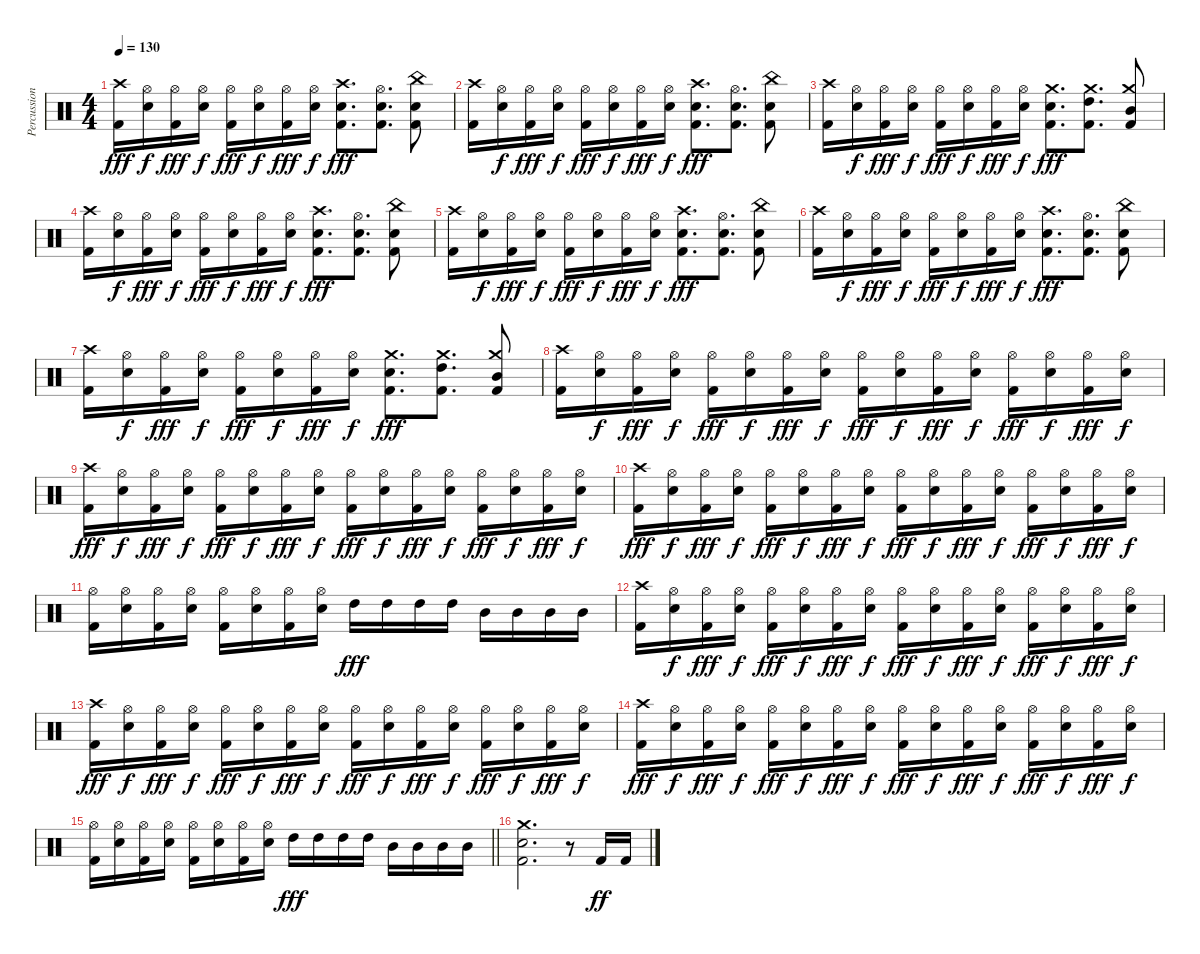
\track ("Percussion" "Percussion") {instrument percussion}
\staff {score}
\articulation defaults
\ts (4 4)
\tempo 130
\clef neutral
\ks c
("Crash high (hit)" "Kick (hit) 2").16{dy fff} ("Hi-Hat (open)" "Electric Snare (hit)").16{dy f} ("Hi-Hat (open)" "Kick (hit) 2").16{dy fff} ("Hi-Hat (open)" "Electric Snare (hit)").16{dy f} ("Hi-Hat (open)" "Kick (hit) 2").16{dy fff} ("Hi-Hat (open)" "Electric Snare (hit)").16{dy f} ("Hi-Hat (open)" "Kick (hit) 2").16{dy fff} ("Hi-Hat (open)" "Electric Snare (hit)").16{dy f} ("Crash high (hit)" "Electric Snare (hit)" "Kick (hit) 2").8{d dy fff} ("Hi-Hat (open)" "Electric Snare (hit)" "Kick (hit) 2").8{d} ("China (hit)" "Electric Snare (hit)" "Kick (hit) 2").8 |
("Crash high (hit)" "Kick (hit) 2").16 ("Hi-Hat (open)" "Electric Snare (hit)").16{dy f} ("Hi-Hat (open)" "Kick (hit) 2").16{dy fff} ("Hi-Hat (open)" "Electric Snare (hit)").16{dy f} ("Hi-Hat (open)" "Kick (hit) 2").16{dy fff} ("Hi-Hat (open)" "Electric Snare (hit)").16{dy f} ("Hi-Hat (open)" "Kick (hit) 2").16{dy fff} ("Hi-Hat (open)" "Electric Snare (hit)").16{dy f} ("Crash high (hit)" "Electric Snare (hit)" "Kick (hit) 2").8{d dy fff} ("Hi-Hat (open)" "Electric Snare (hit)" "Kick (hit) 2").8{d} ("China (hit)" "Electric Snare (hit)" "Kick (hit) 2").8 |
("Crash high (hit)" "Kick (hit) 2").16 ("Hi-Hat (open)" "Electric Snare (hit)").16{dy f} ("Hi-Hat (open)" "Kick (hit) 2").16{dy fff} ("Hi-Hat (open)" "Electric Snare (hit)").16{dy f} ("Hi-Hat (open)" "Kick (hit) 2").16{dy fff} ("Hi-Hat (open)" "Electric Snare (hit)").16{dy f} ("Hi-Hat (open)" "Kick (hit) 2").16{dy fff} ("Hi-Hat (open)" "Electric Snare (hit)").16{dy f} ("Crash medium (hit)" "Electric Snare (hit)" "Kick (hit) 2").8{d dy fff} ("Crash medium (hit)" "High Tom (hit)" "Kick (hit) 2").8{d} ("Crash medium (hit)" "Mid Tom (hit)" "Kick (hit) 2").8 |
("Crash high (hit)" "Kick (hit) 2").16 ("Hi-Hat (open)" "Electric Snare (hit)").16{dy f} ("Hi-Hat (open)" "Kick (hit) 2").16{dy fff} ("Hi-Hat (open)" "Electric Snare (hit)").16{dy f} ("Hi-Hat (open)" "Kick (hit) 2").16{dy fff} ("Hi-Hat (open)" "Electric Snare (hit)").16{dy f} ("Hi-Hat (open)" "Kick (hit) 2").16{dy fff} ("Hi-Hat (open)" "Electric Snare (hit)").16{dy f} ("Crash high (hit)" "Electric Snare (hit)" "Kick (hit) 2").8{d dy fff} ("Hi-Hat (open)" "Electric Snare (hit)" "Kick (hit) 2").8{d} ("China (hit)" "Electric Snare (hit)" "Kick (hit) 2").8 |
("Crash high (hit)" "Kick (hit) 2").16 ("Hi-Hat (open)" "Electric Snare (hit)").16{dy f} ("Hi-Hat (open)" "Kick (hit) 2").16{dy fff} ("Hi-Hat (open)" "Electric Snare (hit)").16{dy f} ("Hi-Hat (open)" "Kick (hit) 2").16{dy fff} ("Hi-Hat (open)" "Electric Snare (hit)").16{dy f} ("Hi-Hat (open)" "Kick (hit) 2").16{dy fff} ("Hi-Hat (open)" "Electric Snare (hit)").16{dy f} ("Crash high (hit)" "Electric Snare (hit)" "Kick (hit) 2").8{d dy fff} ("Hi-Hat (open)" "Electric Snare (hit)" "Kick (hit) 2").8{d} ("China (hit)" "Electric Snare (hit)" "Kick (hit) 2").8 |
("Crash high (hit)" "Kick (hit) 2").16 ("Hi-Hat (open)" "Electric Snare (hit)").16{dy f} ("Hi-Hat (open)" "Kick (hit) 2").16{dy fff} ("Hi-Hat (open)" "Electric Snare (hit)").16{dy f} ("Hi-Hat (open)" "Kick (hit) 2").16{dy fff} ("Hi-Hat (open)" "Electric Snare (hit)").16{dy f} ("Hi-Hat (open)" "Kick (hit) 2").16{dy fff} ("Hi-Hat (open)" "Electric Snare (hit)").16{dy f} ("Crash high (hit)" "Electric Snare (hit)" "Kick (hit) 2").8{d dy fff} ("Hi-Hat (open)" "Electric Snare (hit)" "Kick (hit) 2").8{d} ("China (hit)" "Electric Snare (hit)" "Kick (hit) 2").8 |
("Crash high (hit)" "Kick (hit) 2").16 ("Hi-Hat (open)" "Electric Snare (hit)").16{dy f} ("Hi-Hat (open)" "Kick (hit) 2").16{dy fff} ("Hi-Hat (open)" "Electric Snare (hit)").16{dy f} ("Hi-Hat (open)" "Kick (hit) 2").16{dy fff} ("Hi-Hat (open)" "Electric Snare (hit)").16{dy f} ("Hi-Hat (open)" "Kick (hit) 2").16{dy fff} ("Hi-Hat (open)" "Electric Snare (hit)").16{dy f} ("Crash medium (hit)" "Electric Snare (hit)" "Kick (hit) 2").8{d dy fff} ("Crash medium (hit)" "High Tom (hit)" "Kick (hit) 2").8{d} ("Crash medium (hit)" "Mid Tom (hit)" "Kick (hit) 2").8 |
("Crash high (hit)" "Kick (hit) 2").16 ("Hi-Hat (open)" "Electric Snare (hit)").16{dy f} ("Hi-Hat (open)" "Kick (hit) 2").16{dy fff} ("Hi-Hat (open)" "Electric Snare (hit)").16{dy f} ("Hi-Hat (open)" "Kick (hit) 2").16{dy fff} ("Hi-Hat (open)" "Electric Snare (hit)").16{dy f} ("Hi-Hat (open)" "Kick (hit) 2").16{dy fff} ("Hi-Hat (open)" "Electric Snare (hit)").16{dy f} ("Hi-Hat (open)" "Kick (hit) 2").16{dy fff} ("Hi-Hat (open)" "Electric Snare (hit)").16{dy f} ("Hi-Hat (open)" "Kick (hit) 2").16{dy fff} ("Hi-Hat (open)" "Electric Snare (hit)").16{dy f} ("Hi-Hat (open)" "Kick (hit) 2").16{dy fff} ("Hi-Hat (open)" "Electric Snare (hit)").16{dy f} ("Hi-Hat (open)" "Kick (hit) 2").16{dy fff} ("Hi-Hat (open)" "Electric Snare (hit)").16{dy f} |
("Crash high (hit)" "Kick (hit) 2").16{dy fff} ("Hi-Hat (open)" "Electric Snare (hit)").16{dy f} ("Hi-Hat (open)" "Kick (hit) 2").16{dy fff} ("Hi-Hat (open)" "Electric Snare (hit)").16{dy f} ("Hi-Hat (open)" "Kick (hit) 2").16{dy fff} ("Hi-Hat (open)" "Electric Snare (hit)").16{dy f} ("Hi-Hat (open)" "Kick (hit) 2").16{dy fff} ("Hi-Hat (open)" "Electric Snare (hit)").16{dy f} ("Hi-Hat (open)" "Kick (hit) 2").16{dy fff} ("Hi-Hat (open)" "Electric Snare (hit)").16{dy f} ("Hi-Hat (open)" "Kick (hit) 2").16{dy fff} ("Hi-Hat (open)" "Electric Snare (hit)").16{dy f} ("Hi-Hat (open)" "Kick (hit) 2").16{dy fff} ("Hi-Hat (open)" "Electric Snare (hit)").16{dy f} ("Hi-Hat (open)" "Kick (hit) 2").16{dy fff} ("Hi-Hat (open)" "Electric Snare (hit)").16{dy f} |
("Crash high (hit)" "Kick (hit) 2").16{dy fff} ("Hi-Hat (open)" "Electric Snare (hit)").16{dy f} ("Hi-Hat (open)" "Kick (hit) 2").16{dy fff} ("Hi-Hat (open)" "Electric Snare (hit)").16{dy f} ("Hi-Hat (open)" "Kick (hit) 2").16{dy fff} ("Hi-Hat (open)" "Electric Snare (hit)").16{dy f} ("Hi-Hat (open)" "Kick (hit) 2").16{dy fff} ("Hi-Hat (open)" "Electric Snare (hit)").16{dy f} ("Hi-Hat (open)" "Kick (hit) 2").16{dy fff} ("Hi-Hat (open)" "Electric Snare (hit)").16{dy f} ("Hi-Hat (open)" "Kick (hit) 2").16{dy fff} ("Hi-Hat (open)" "Electric Snare (hit)").16{dy f} ("Hi-Hat (open)" "Kick (hit) 2").16{dy fff} ("Hi-Hat (open)" "Electric Snare (hit)").16{dy f} ("Hi-Hat (open)" "Kick (hit) 2").16{dy fff} ("Hi-Hat (open)" "Electric Snare (hit)").16{dy f} |
("Hi-Hat (open)" "Kick (hit) 2").16 ("Hi-Hat (open)" "Electric Snare (hit)").16 ("Hi-Hat (open)" "Kick (hit) 2").16 ("Hi-Hat (open)" "Electric Snare (hit)").16 ("Hi-Hat (open)" "Kick (hit) 2").16 ("Hi-Hat (open)" "Electric Snare (hit)").16 ("Hi-Hat (open)" "Kick (hit) 2").16 ("Hi-Hat (open)" "Electric Snare (hit)").16 "High Tom (hit)".16{dy fff} "High Tom (hit)".16 "High Tom (hit)".16 "High Tom (hit)".16 "Mid Tom (hit)".16 "Mid Tom (hit)".16 "Mid Tom (hit)".16 "Mid Tom (hit)".16 |
("Crash high (hit)" "Kick (hit) 2").16 ("Hi-Hat (open)" "Electric Snare (hit)").16{dy f} ("Hi-Hat (open)" "Kick (hit) 2").16{dy fff} ("Hi-Hat (open)" "Electric Snare (hit)").16{dy f} ("Hi-Hat (open)" "Kick (hit) 2").16{dy fff} ("Hi-Hat (open)" "Electric Snare (hit)").16{dy f} ("Hi-Hat (open)" "Kick (hit) 2").16{dy fff} ("Hi-Hat (open)" "Electric Snare (hit)").16{dy f} ("Hi-Hat (open)" "Kick (hit) 2").16{dy fff} ("Hi-Hat (open)" "Electric Snare (hit)").16{dy f} ("Hi-Hat (open)" "Kick (hit) 2").16{dy fff} ("Hi-Hat (open)" "Electric Snare (hit)").16{dy f} ("Hi-Hat (open)" "Kick (hit) 2").16{dy fff} ("Hi-Hat (open)" "Electric Snare (hit)").16{dy f} ("Hi-Hat (open)" "Kick (hit) 2").16{dy fff} ("Hi-Hat (open)" "Electric Snare (hit)").16{dy f} |
("Crash high (hit)" "Kick (hit) 2").16{dy fff} ("Hi-Hat (open)" "Electric Snare (hit)").16{dy f} ("Hi-Hat (open)" "Kick (hit) 2").16{dy fff} ("Hi-Hat (open)" "Electric Snare (hit)").16{dy f} ("Hi-Hat (open)" "Kick (hit) 2").16{dy fff} ("Hi-Hat (open)" "Electric Snare (hit)").16{dy f} ("Hi-Hat (open)" "Kick (hit) 2").16{dy fff} ("Hi-Hat (open)" "Electric Snare (hit)").16{dy f} ("Hi-Hat (open)" "Kick (hit) 2").16{dy fff} ("Hi-Hat (open)" "Electric Snare (hit)").16{dy f} ("Hi-Hat (open)" "Kick (hit) 2").16{dy fff} ("Hi-Hat (open)" "Electric Snare (hit)").16{dy f} ("Hi-Hat (open)" "Kick (hit) 2").16{dy fff} ("Hi-Hat (open)" "Electric Snare (hit)").16{dy f} ("Hi-Hat (open)" "Kick (hit) 2").16{dy fff} ("Hi-Hat (open)" "Electric Snare (hit)").16{dy f} |
("Crash high (hit)" "Kick (hit) 2").16{dy fff} ("Hi-Hat (open)" "Electric Snare (hit)").16{dy f} ("Hi-Hat (open)" "Kick (hit) 2").16{dy fff} ("Hi-Hat (open)" "Electric Snare (hit)").16{dy f} ("Hi-Hat (open)" "Kick (hit) 2").16{dy fff} ("Hi-Hat (open)" "Electric Snare (hit)").16{dy f} ("Hi-Hat (open)" "Kick (hit) 2").16{dy fff} ("Hi-Hat (open)" "Electric Snare (hit)").16{dy f} ("Hi-Hat (open)" "Kick (hit) 2").16{dy fff} ("Hi-Hat (open)" "Electric Snare (hit)").16{dy f} ("Hi-Hat (open)" "Kick (hit) 2").16{dy fff} ("Hi-Hat (open)" "Electric Snare (hit)").16{dy f} ("Hi-Hat (open)" "Kick (hit) 2").16{dy fff} ("Hi-Hat (open)" "Electric Snare (hit)").16{dy f} ("Hi-Hat (open)" "Kick (hit) 2").16{dy fff} ("Hi-Hat (open)" "Electric Snare (hit)").16{dy f} |
\barLineRight lightlight
("Hi-Hat (open)" "Kick (hit) 2").16 ("Hi-Hat (open)" "Electric Snare (hit)").16 ("Hi-Hat (open)" "Kick (hit) 2").16 ("Hi-Hat (open)" "Electric Snare (hit)").16 ("Hi-Hat (open)" "Kick (hit) 2").16 ("Hi-Hat (open)" "Electric Snare (hit)").16 ("Hi-Hat (open)" "Kick (hit) 2").16 ("Hi-Hat (open)" "Electric Snare (hit)").16 "High Tom (hit)".16{dy fff} "High Tom (hit)".16 "High Tom (hit)".16 "High Tom (hit)".16 "Mid Tom (hit)".16 "Mid Tom (hit)".16 "Mid Tom (hit)".16 "Mid Tom (hit)".16 |
("Crash medium (hit)" "Electric Snare (hit)" "Kick (hit) 2").2{d} r.8 "Kick (hit) 2".16{dy ff} "Kick (hit) 2".16
